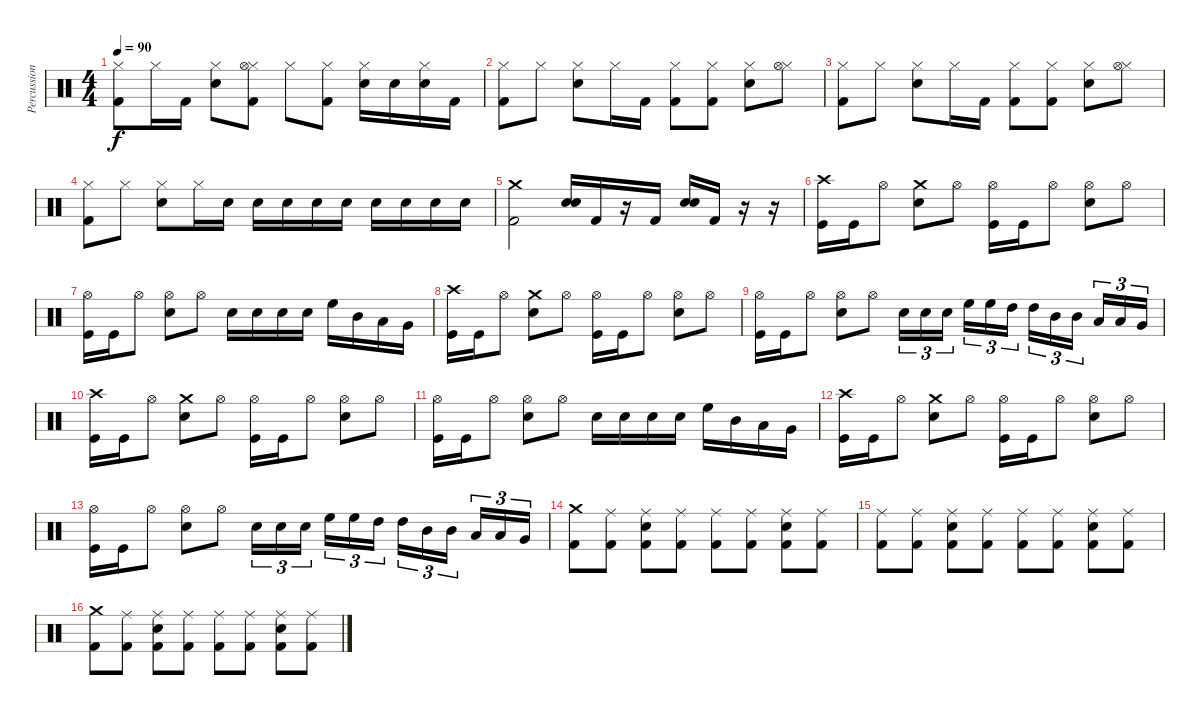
\track ("Percussions" "Percussion") {instrument percussion}
\staff {score}
\articulation defaults
\ts (4 4)
\tempo 90
\clef neutral
\ks c
("Hi-Hat (closed)" "Kick (hit) 2").8{dy f} "Hi-Hat (closed)".16 "Kick (hit) 2".16 ("Hi-Hat (closed)" "Electric Snare (hit)").8 ("Hi-Hat (closed)" "Hi-Hat (open)" "Kick (hit) 2").8 "Hi-Hat (closed)".8 ("Hi-Hat (closed)" "Kick (hit) 2").8 ("Hi-Hat (closed)" "Electric Snare (hit)").16 "Snare (hit)".16 ("Hi-Hat (closed)" "Snare (hit)").16 "Kick (hit) 2".16 |
("Hi-Hat (closed)" "Kick (hit) 2").8 "Hi-Hat (closed)".8 ("Hi-Hat (closed)" "Electric Snare (hit)").8 "Hi-Hat (closed)".16 "Kick (hit) 2".16 ("Hi-Hat (closed)" "Kick (hit) 2").8 ("Hi-Hat (closed)" "Kick (hit) 2").8 ("Hi-Hat (closed)" "Electric Snare (hit)").8 ("Hi-Hat (closed)" "Hi-Hat (open)").8 |
("Hi-Hat (closed)" "Kick (hit) 2").8 "Hi-Hat (closed)".8 ("Hi-Hat (closed)" "Electric Snare (hit)").8 "Hi-Hat (closed)".16 "Kick (hit) 2".16 ("Hi-Hat (closed)" "Kick (hit) 2").8 ("Hi-Hat (closed)" "Kick (hit) 2").8 ("Hi-Hat (closed)" "Electric Snare (hit)").8 ("Hi-Hat (closed)" "Hi-Hat (open)").8 |
("Hi-Hat (closed)" "Kick (hit) 2").8 "Hi-Hat (closed)".8 ("Hi-Hat (closed)" "Electric Snare (hit)").8 "Hi-Hat (closed)".16 "Electric Snare (hit)".16 "Electric Snare (hit)".16 "Electric Snare (hit)".16 "Electric Snare (hit)".16 "Electric Snare (hit)".16 "Electric Snare (hit)".16 "Electric Snare (hit)".16 "Electric Snare (hit)".16 "Electric Snare (hit)".16 |
("Crash medium (hit)" "Kick (hit) 2").2 ("Snare (hit) 2" "Electric Snare (hit)").16 "Kick (hit) 2".16 r.16 "Kick (hit) 2".16 ("Snare (hit) 2" "Electric Snare (hit)").16 "Kick (hit) 2".16 r.16 r.16 |
("Crash high (hit)" "Kick (hit)").16 "Kick (hit)".16 "Hi-Hat (open)".8 ("Crash medium (hit)" "Electric Snare (hit)").8 "Hi-Hat (open)".8 ("Hi-Hat (open)" "Kick (hit)").16 "Kick (hit)".16 "Hi-Hat (open)".8 ("Hi-Hat (open)" "Electric Snare (hit)").8 "Hi-Hat (open)".8 |
("Hi-Hat (open)" "Kick (hit)").16 "Kick (hit)".16 "Hi-Hat (open)".8 ("Hi-Hat (open)" "Electric Snare (hit)").8 "Hi-Hat (open)".8 "Electric Snare (hit)".16 "Electric Snare (hit)".16 "Electric Snare (hit)".16 "Electric Snare (hit)".16 "High Floor Tom (hit)".16 "Mid Tom (hit)".16 "Low Tom (hit)".16 "Very Low Tom (hit)".16 |
("Crash high (hit)" "Kick (hit)").16 "Kick (hit)".16 "Hi-Hat (open)".8 ("Crash medium (hit)" "Electric Snare (hit)").8 "Hi-Hat (open)".8 ("Hi-Hat (open)" "Kick (hit)").16 "Kick (hit)".16 "Hi-Hat (open)".8 ("Hi-Hat (open)" "Electric Snare (hit)").8 "Hi-Hat (open)".8 |
("Hi-Hat (open)" "Kick (hit)").16 "Kick (hit)".16 "Hi-Hat (open)".8 ("Hi-Hat (open)" "Electric Snare (hit)").8 "Hi-Hat (open)".8 "Electric Snare (hit)".16{tu (3 2)} "Electric Snare (hit)".16{tu (3 2)} "Electric Snare (hit)".16{tu (3 2)} "High Floor Tom (hit)".16{tu (3 2)} "High Floor Tom (hit)".16{tu (3 2)} "High Tom (hit)".16{tu (3 2)} "High Tom (hit)".16{tu (3 2)} "Mid Tom (hit)".16{tu (3 2)} "Mid Tom (hit)".16{tu (3 2)} "Low Tom (hit)".16{tu (3 2)} "Low Floor Tom (hit)".16{tu (3 2)} "Very Low Tom (hit)".16{tu (3 2)} |
("Crash high (hit)" "Kick (hit)").16 "Kick (hit)".16 "Hi-Hat (open)".8 ("Crash medium (hit)" "Electric Snare (hit)").8 "Hi-Hat (open)".8 ("Hi-Hat (open)" "Kick (hit)").16 "Kick (hit)".16 "Hi-Hat (open)".8 ("Hi-Hat (open)" "Electric Snare (hit)").8 "Hi-Hat (open)".8 |
("Hi-Hat (open)" "Kick (hit)").16 "Kick (hit)".16 "Hi-Hat (open)".8 ("Hi-Hat (open)" "Electric Snare (hit)").8 "Hi-Hat (open)".8 "Electric Snare (hit)".16 "Electric Snare (hit)".16 "Electric Snare (hit)".16 "Electric Snare (hit)".16 "High Floor Tom (hit)".16 "Mid Tom (hit)".16 "Low Tom (hit)".16 "Very Low Tom (hit)".16 |
("Crash high (hit)" "Kick (hit)").16 "Kick (hit)".16 "Hi-Hat (open)".8 ("Crash medium (hit)" "Electric Snare (hit)").8 "Hi-Hat (open)".8 ("Hi-Hat (open)" "Kick (hit)").16 "Kick (hit)".16 "Hi-Hat (open)".8 ("Hi-Hat (open)" "Electric Snare (hit)").8 "Hi-Hat (open)".8 |
("Hi-Hat (open)" "Kick (hit)").16 "Kick (hit)".16 "Hi-Hat (open)".8 ("Hi-Hat (open)" "Electric Snare (hit)").8 "Hi-Hat (open)".8 "Electric Snare (hit)".16{tu (3 2)} "Electric Snare (hit)".16{tu (3 2)} "Electric Snare (hit)".16{tu (3 2)} "High Floor Tom (hit)".16{tu (3 2)} "High Floor Tom (hit)".16{tu (3 2)} "High Tom (hit)".16{tu (3 2)} "High Tom (hit)".16{tu (3 2)} "Mid Tom (hit)".16{tu (3 2)} "Mid Tom (hit)".16{tu (3 2)} "Low Tom (hit)".16{tu (3 2)} "Low Floor Tom (hit)".16{tu (3 2)} "Very Low Tom (hit)".16{tu (3 2)} |
("Crash medium (hit)" "Kick (hit) 2").8 ("Ride (middle)" "Kick (hit) 2").8 ("Ride (middle)" "Electric Snare (hit)" "Kick (hit) 2").8 ("Ride (middle)" "Kick (hit) 2").8 ("Ride (middle)" "Kick (hit) 2").8 ("Ride (middle)" "Kick (hit) 2").8 ("Ride (middle)" "Electric Snare (hit)" "Kick (hit) 2").8 ("Ride (middle)" "Kick (hit) 2").8 |
("Ride (middle)" "Kick (hit) 2").8 ("Ride (middle)" "Kick (hit) 2").8 ("Ride (middle)" "Electric Snare (hit)" "Kick (hit) 2").8 ("Ride (middle)" "Kick (hit) 2").8 ("Ride (middle)" "Kick (hit) 2").8 ("Ride (middle)" "Kick (hit) 2").8 ("Ride (middle)" "Electric Snare (hit)" "Kick (hit) 2").8 ("Ride (middle)" "Kick (hit) 2").8 |
("Crash medium (hit)" "Kick (hit) 2").8 ("Ride (middle)" "Kick (hit) 2").8 ("Ride (middle)" "Electric Snare (hit)" "Kick (hit) 2").8 ("Ride (middle)" "Kick (hit) 2").8 ("Ride (middle)" "Kick (hit) 2").8 ("Ride (middle)" "Kick (hit) 2").8 ("Ride (middle)" "Electric Snare (hit)" "Kick (hit) 2").8 ("Ride (middle)" "Kick (hit) 2").8
